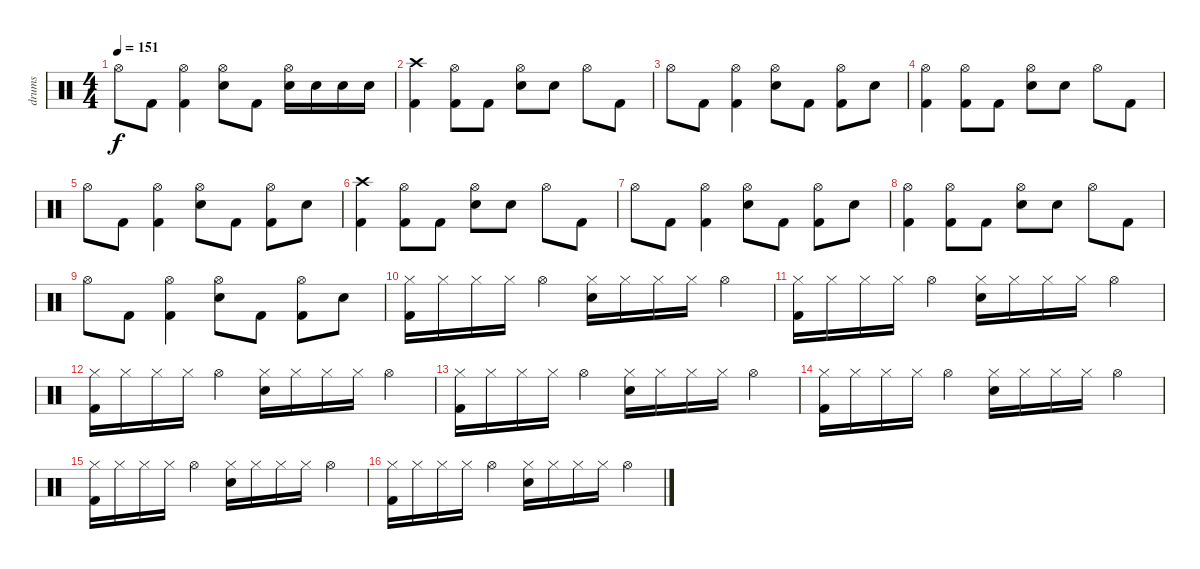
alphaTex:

\track ("drums" "drums") {instrument percussion}
\staff {score}
\articulation defaults
\ts (4 4)
\tempo 151
\clef neutral
\ks c "Hi-Hat (open)".8{dy f} "Kick (hit) 2".8
("Hi-Hat (open)" "Kick (hit) 2").4 ("Hi-Hat (open)" "Electric Snare (hit)").8 "Kick (hit) 2".8 ("Hi-Hat (open)" "Electric Snare (hit)").16 "Electric Snare (hit)".16 "Electric Snare (hit)".16 "Electric Snare (hit)".16 |
("Crash high (hit)" "Kick (hit) 2").4 ("Hi-Hat (open)" "Kick (hit) 2").8 "Kick (hit) 2".8 ("Hi-Hat (open)" "Electric Snare (hit)").8 "Electric Snare (hit)".8 "Hi-Hat (open)".8 "Kick (hit) 2".8 |
"Hi-Hat (open)".8 "Kick (hit) 2".8 ("Hi-Hat (open)" "Kick (hit) 2").4 ("Hi-Hat (open)" "Electric Snare (hit)").8 "Kick (hit) 2".8 ("Hi-Hat (open)" "Kick (hit) 2").8 "Electric Snare (hit)".8 |
("Hi-Hat (open)" "Kick (hit) 2").4 ("Hi-Hat (open)" "Kick (hit) 2").8 "Kick (hit) 2".8 ("Hi-Hat (open)" "Electric Snare (hit)").8 "Electric Snare (hit)".8 "Hi-Hat (open)".8 "Kick (hit) 2".8 |
"Hi-Hat (open)".8 "Kick (hit) 2".8 ("Hi-Hat (open)" "Kick (hit) 2").4 ("Hi-Hat (open)" "Electric Snare (hit)").8 "Kick (hit) 2".8 ("Hi-Hat (open)" "Kick (hit) 2").8 "Electric Snare (hit)".8 |
("Crash high (hit)" "Kick (hit) 2").4 ("Hi-Hat (open)" "Kick (hit) 2").8 "Kick (hit) 2".8 ("Hi-Hat (open)" "Electric Snare (hit)").8 "Electric Snare (hit)".8 "Hi-Hat (open)".8 "Kick (hit) 2".8 |
"Hi-Hat (open)".8 "Kick (hit) 2".8 ("Hi-Hat (open)" "Kick (hit) 2").4 ("Hi-Hat (open)" "Electric Snare (hit)").8 "Kick (hit) 2".8 ("Hi-Hat (open)" "Kick (hit) 2").8 "Electric Snare (hit)".8 |
("Hi-Hat (open)" "Kick (hit) 2").4 ("Hi-Hat (open)" "Kick (hit) 2").8 "Kick (hit) 2".8 ("Hi-Hat (open)" "Electric Snare (hit)").8 "Electric Snare (hit)".8 "Hi-Hat (open)".8 "Kick (hit) 2".8 |
"Hi-Hat (open)".8 "Kick (hit) 2".8 ("Hi-Hat (open)" "Kick (hit) 2").4 ("Hi-Hat (open)" "Electric Snare (hit)").8 "Kick (hit) 2".8 ("Hi-Hat (open)" "Kick (hit) 2").8 "Electric Snare (hit)".8 |
("Hi-Hat (closed)" "Kick (hit) 2").16 "Hi-Hat (closed)".16 "Hi-Hat (closed)".16 "Hi-Hat (closed)".16 "Hi-Hat (open)".4 ("Hi-Hat (closed)" "Electric Snare (hit)").16 "Hi-Hat (closed)".16 "Hi-Hat (closed)".16 "Hi-Hat (closed)".16 "Hi-Hat (open)".4 |
("Hi-Hat (closed)" "Kick (hit) 2").16 "Hi-Hat (closed)".16 "Hi-Hat (closed)".16 "Hi-Hat (closed)".16 "Hi-Hat (open)".4 ("Hi-Hat (closed)" "Electric Snare (hit)").16 "Hi-Hat (closed)".16 "Hi-Hat (closed)".16 "Hi-Hat (closed)".16 "Hi-Hat (open)".4 |
("Hi-Hat (closed)" "Kick (hit) 2").16 "Hi-Hat (closed)".16 "Hi-Hat (closed)".16 "Hi-Hat (closed)".16 "Hi-Hat (open)".4 ("Hi-Hat (closed)" "Electric Snare (hit)").16 "Hi-Hat (closed)".16 "Hi-Hat (closed)".16 "Hi-Hat (closed)".16 "Hi-Hat (open)".4 |
("Hi-Hat (closed)" "Kick (hit) 2").16 "Hi-Hat (closed)".16 "Hi-Hat (closed)".16 "Hi-Hat (closed)".16 "Hi-Hat (open)".4 ("Hi-Hat (closed)" "Electric Snare (hit)").16 "Hi-Hat (closed)".16 "Hi-Hat (closed)".16 "Hi-Hat (closed)".16 "Hi-Hat (open)".4 |
("Hi-Hat (closed)" "Kick (hit) 2").16 "Hi-Hat (closed)".16 "Hi-Hat (closed)".16 "Hi-Hat (closed)".16 "Hi-Hat (open)".4 ("Hi-Hat (closed)" "Electric Snare (hit)").16 "Hi-Hat (closed)".16 "Hi-Hat (closed)".16 "Hi-Hat (closed)".16 "Hi-Hat (open)".4 |
("Hi-Hat (closed)" "Kick (hit) 2").16 "Hi-Hat (closed)".16 "Hi-Hat (closed)".16 "Hi-Hat (closed)".16 "Hi-Hat (open)".4 ("Hi-Hat (closed)" "Electric Snare (hit)").16 "Hi-Hat (closed)".16 "Hi-Hat (closed)".16 "Hi-Hat (closed)".16 "Hi-Hat (open)".4 |
("Hi-Hat (closed)" "Kick (hit) 2").16 "Hi-Hat (closed)".16 "Hi-Hat (closed)".16 "Hi-Hat (closed)".16 "Hi-Hat (open)".4 ("Hi-Hat (closed)" "Electric Snare (hit)").16 "Hi-Hat (closed)".16 "Hi-Hat (closed)".16 "Hi-Hat (closed)".16 "Hi-Hat (open)".4
